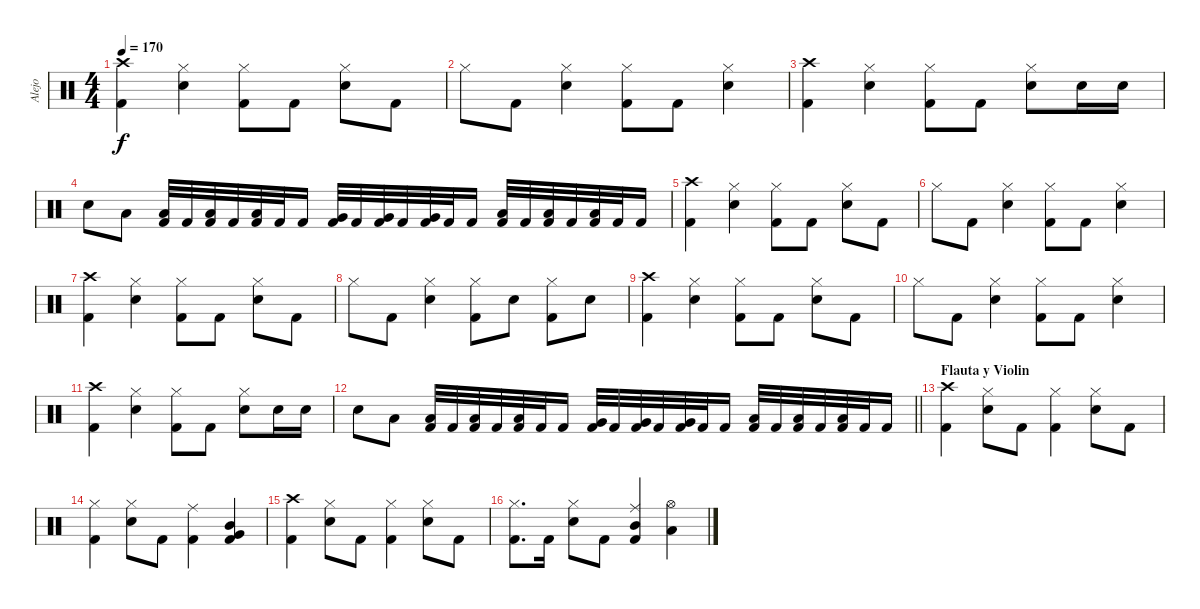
\track ("Alejo" "Alejo") {instrument percussion}
\staff {score}
\articulation defaults
\ts (4 4)
\tempo 170
\clef neutral
\ks c
("Crash high (hit)" "Kick (hit) 2").4{dy f} ("Snare (hit) 2" "Hi-Hat (closed)").4 ("Kick (hit) 2" "Hi-Hat (closed)").8 "Kick (hit) 2".8 ("Snare (hit) 2" "Hi-Hat (closed)").8 "Kick (hit) 2".8 |
"Hi-Hat (closed)".8 "Kick (hit) 2".8 ("Snare (hit) 2" "Hi-Hat (closed)").4 ("Kick (hit) 2" "Hi-Hat (closed)").8 "Kick (hit) 2".8 ("Snare (hit) 2" "Hi-Hat (closed)").4 |
("Crash high (hit)" "Kick (hit) 2").4 ("Snare (hit) 2" "Hi-Hat (closed)").4 ("Kick (hit) 2" "Hi-Hat (closed)").8 "Kick (hit) 2".8 ("Snare (hit) 2" "Hi-Hat (closed)").8 "Snare (hit) 2".16 "Snare (hit) 2".16 |
"Snare (hit) 2".8 "Low Tom (hit)".8 ("Kick (hit) 2" "Low Tom (hit)").32 "Kick (hit) 2".32 ("Kick (hit) 2" "Low Tom (hit)").32 "Kick (hit) 2".32 ("Kick (hit) 2" "Low Tom (hit)").32 "Kick (hit) 2".32 "Kick (hit) 2".16 ("Kick (hit) 2" "Very Low Tom (hit)").32 "Kick (hit) 2".32 ("Kick (hit) 2" "Very Low Tom (hit)").32 "Kick (hit) 2".32 ("Kick (hit) 2" "Very Low Tom (hit)").32 "Kick (hit) 2".32 "Kick (hit) 2".16 ("Kick (hit) 2" "Low Floor Tom (hit)").32 "Kick (hit) 2".32 ("Kick (hit) 2" "Low Floor Tom (hit)").32 "Kick (hit) 2".32 ("Kick (hit) 2" "Low Floor Tom (hit)").32 "Kick (hit) 2".32 "Kick (hit) 2".16 |
("Crash high (hit)" "Kick (hit) 2").4 ("Snare (hit) 2" "Hi-Hat (closed)").4 ("Kick (hit) 2" "Hi-Hat (closed)").8 "Kick (hit) 2".8 ("Snare (hit) 2" "Hi-Hat (closed)").8 "Kick (hit) 2".8 |
"Hi-Hat (closed)".8 "Kick (hit) 2".8 ("Snare (hit) 2" "Hi-Hat (closed)").4 ("Kick (hit) 2" "Hi-Hat (closed)").8 "Kick (hit) 2".8 ("Snare (hit) 2" "Hi-Hat (closed)").4 |
("Crash high (hit)" "Kick (hit) 2").4 ("Snare (hit) 2" "Hi-Hat (closed)").4 ("Kick (hit) 2" "Hi-Hat (closed)").8 "Kick (hit) 2".8 ("Snare (hit) 2" "Hi-Hat (closed)").8 "Kick (hit) 2".8 |
"Hi-Hat (closed)".8 "Kick (hit) 2".8 ("Snare (hit) 2" "Hi-Hat (closed)").4 ("Kick (hit) 2" "Hi-Hat (closed)").8 "Snare (hit) 2".8 ("Kick (hit) 2" "Hi-Hat (closed)").8 "Snare (hit) 2".8 |
("Crash high (hit)" "Kick (hit) 2").4 ("Snare (hit) 2" "Hi-Hat (closed)").4 ("Kick (hit) 2" "Hi-Hat (closed)").8 "Kick (hit) 2".8 ("Snare (hit) 2" "Hi-Hat (closed)").8 "Kick (hit) 2".8 |
"Hi-Hat (closed)".8 "Kick (hit) 2".8 ("Snare (hit) 2" "Hi-Hat (closed)").4 ("Kick (hit) 2" "Hi-Hat (closed)").8 "Kick (hit) 2".8 ("Snare (hit) 2" "Hi-Hat (closed)").4 |
("Crash high (hit)" "Kick (hit) 2").4 ("Snare (hit) 2" "Hi-Hat (closed)").4 ("Kick (hit) 2" "Hi-Hat (closed)").8 "Kick (hit) 2".8 ("Snare (hit) 2" "Hi-Hat (closed)").8 "Snare (hit) 2".16 "Snare (hit) 2".16 |
\barLineRight lightlight "Snare (hit) 2".8 "Low Tom (hit)".8
("Kick (hit) 2" "Low Tom (hit)").32 "Kick (hit) 2".32 ("Kick (hit) 2" "Low Tom (hit)").32 "Kick (hit) 2".32 ("Kick (hit) 2" "Low Tom (hit)").32 "Kick (hit) 2".32 "Kick (hit) 2".16 ("Kick (hit) 2" "Very Low Tom (hit)").32 "Kick (hit) 2".32 ("Kick (hit) 2" "Very Low Tom (hit)").32 "Kick (hit) 2".32 ("Kick (hit) 2" "Very Low Tom (hit)").32 "Kick (hit) 2".32 "Kick (hit) 2".16 ("Kick (hit) 2" "Low Floor Tom (hit)").32 "Kick (hit) 2".32 ("Kick (hit) 2" "Low Floor Tom (hit)").32 "Kick (hit) 2".32 ("Kick (hit) 2" "Low Floor Tom (hit)").32 "Kick (hit) 2".32 "Kick (hit) 2".16 |
\section ("" "Flauta y Violin")
("Crash high (hit)" "Kick (hit) 2").4 ("Snare (hit) 2" "Hi-Hat (closed)").8 "Kick (hit) 2".8 ("Kick (hit) 2" "Hi-Hat (closed)").4 ("Snare (hit) 2" "Hi-Hat (closed)").8 "Kick (hit) 2".8 |
("Kick (hit) 2" "Hi-Hat (closed)").4 ("Snare (hit) 2" "Hi-Hat (closed)").8 "Kick (hit) 2".8 ("Kick (hit) 2" "Ride (middle)").4 ("Mid Tom (hit)" "Very Low Tom (hit)" "Kick (hit) 2").4 |
("Crash high (hit)" "Kick (hit) 2").4 ("Snare (hit) 2" "Hi-Hat (closed)").8 "Kick (hit) 2".8 ("Kick (hit) 2" "Hi-Hat (closed)").4 ("Snare (hit) 2" "Hi-Hat (closed)").8 "Kick (hit) 2".8 |
("Kick (hit) 2" "Hi-Hat (closed)").8{d} "Kick (hit) 2".16 ("Snare (hit) 2" "Hi-Hat (closed)").8 "Kick (hit) 2".8 ("Kick (hit) 2" "Ride (middle)" "Mid Tom (hit)").4 ("Hi-Hat (open)" "Low Tom (hit)").4
